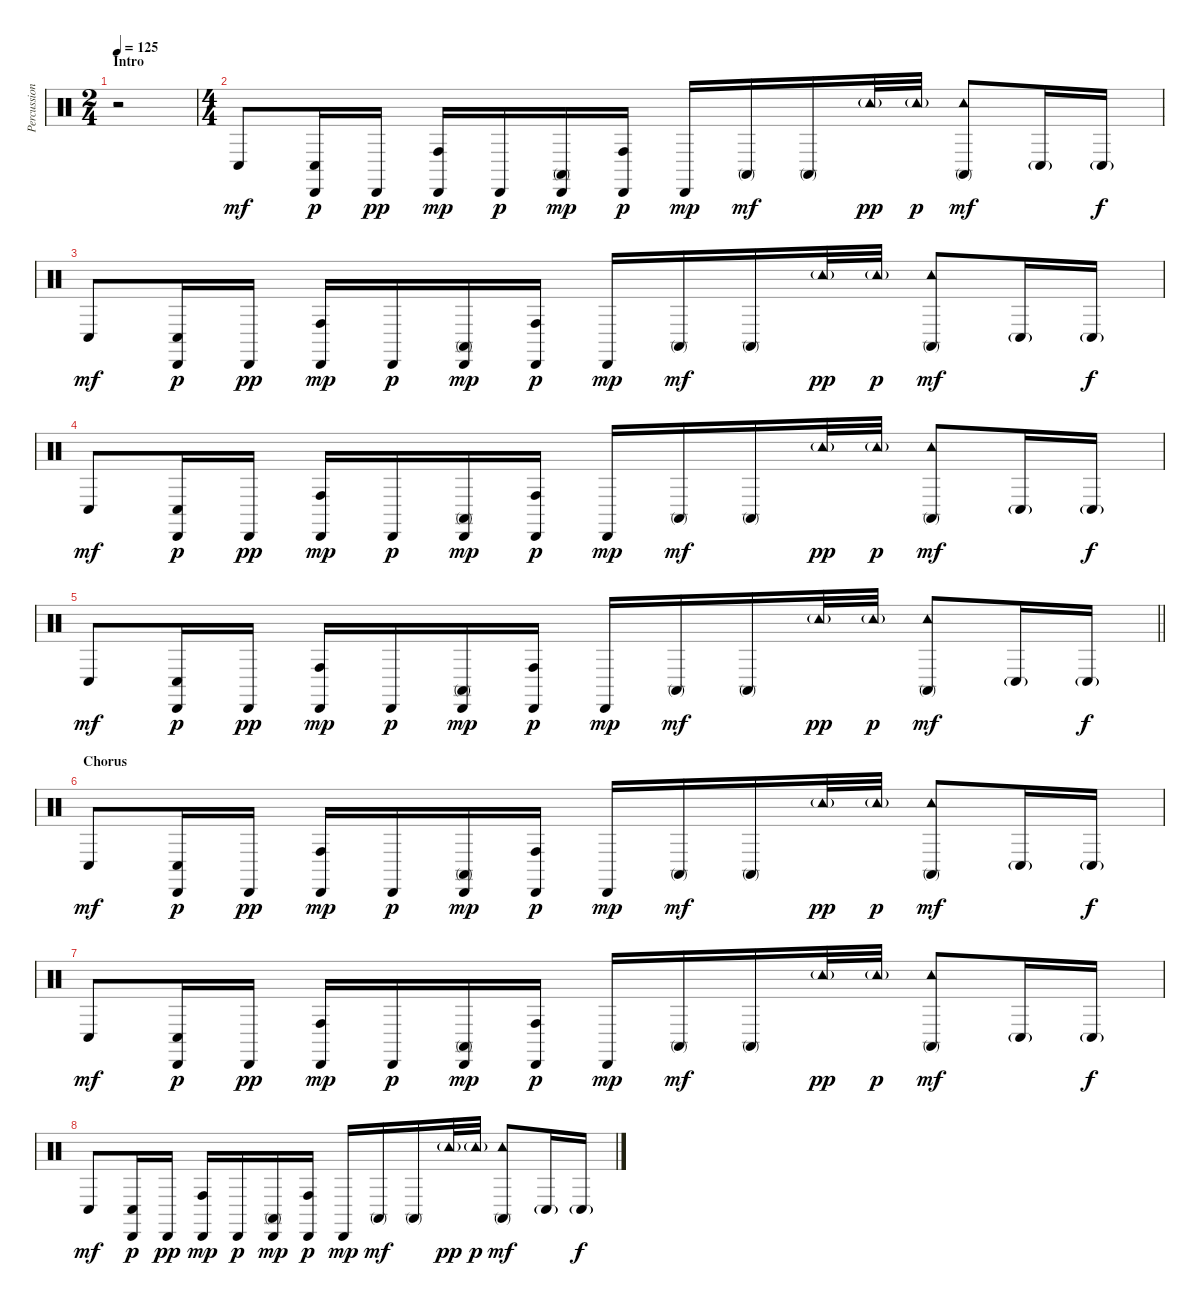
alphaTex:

\track ("Percussion" "Percussion") {instrument percussion}
\staff {score}
\articulation defaults
\ts (2 4)
\section ("" "Intro")
\tempo 125
\clef neutral
\ks c
r.2{dy mf} |
\ts (4 4)
"Conga low (hit)".8 ("Conga low (hit)" "Cabasa (hit)").16{dy p} "Cabasa (hit)".16{dy pp} ("Conga high (hit)" "Cabasa (hit)").16{dy mp} "Cabasa (hit)".16{dy p} ("Conga high (mute)" "Cabasa (hit)").16{dy mp} ("Conga high (hit)" "Cabasa (hit)").16{dy p} "Cabasa (hit)".16{dy mp} "Conga high (mute)".16{dy mf} "Conga high (mute)".16 "Tambourine (hit)"{g}.32{dy pp} "Tambourine (hit)"{g}.32{dy p} ("Conga high (mute)" "Tambourine (hit)").8{dy mf} "Conga low (hit)"{g}.16 "Conga low (hit)"{g}.16{dy f} |
"Conga low (hit)".8{dy mf} ("Conga low (hit)" "Cabasa (hit)").16{dy p} "Cabasa (hit)".16{dy pp} ("Conga high (hit)" "Cabasa (hit)").16{dy mp} "Cabasa (hit)".16{dy p} ("Conga high (mute)" "Cabasa (hit)").16{dy mp} ("Conga high (hit)" "Cabasa (hit)").16{dy p} "Cabasa (hit)".16{dy mp} "Conga high (mute)".16{dy mf} "Conga high (mute)".16 "Tambourine (hit)"{g}.32{dy pp} "Tambourine (hit)"{g}.32{dy p} ("Conga high (mute)" "Tambourine (hit)").8{dy mf} "Conga low (hit)"{g}.16 "Conga low (hit)"{g}.16{dy f} |
"Conga low (hit)".8{dy mf} ("Conga low (hit)" "Cabasa (hit)").16{dy p} "Cabasa (hit)".16{dy pp} ("Conga high (hit)" "Cabasa (hit)").16{dy mp} "Cabasa (hit)".16{dy p} ("Conga high (mute)" "Cabasa (hit)").16{dy mp} ("Conga high (hit)" "Cabasa (hit)").16{dy p} "Cabasa (hit)".16{dy mp} "Conga high (mute)".16{dy mf} "Conga high (mute)".16 "Tambourine (hit)"{g}.32{dy pp} "Tambourine (hit)"{g}.32{dy p} ("Conga high (mute)" "Tambourine (hit)").8{dy mf} "Conga low (hit)"{g}.16 "Conga low (hit)"{g}.16{dy f} |
\barLineRight lightlight "Conga low (hit)".8{dy mf}
("Conga low (hit)" "Cabasa (hit)").16{dy p} "Cabasa (hit)".16{dy pp} ("Conga high (hit)" "Cabasa (hit)").16{dy mp} "Cabasa (hit)".16{dy p} ("Conga high (mute)" "Cabasa (hit)").16{dy mp} ("Conga high (hit)" "Cabasa (hit)").16{dy p} "Cabasa (hit)".16{dy mp} "Conga high (mute)".16{dy mf} "Conga high (mute)".16 "Tambourine (hit)"{g}.32{dy pp} "Tambourine (hit)"{g}.32{dy p} ("Conga high (mute)" "Tambourine (hit)").8{dy mf} "Conga low (hit)"{g}.16 "Conga low (hit)"{g}.16{dy f} |
\section ("" "Chorus")
"Conga low (hit)".8{dy mf} ("Conga low (hit)" "Cabasa (hit)").16{dy p} "Cabasa (hit)".16{dy pp} ("Conga high (hit)" "Cabasa (hit)").16{dy mp} "Cabasa (hit)".16{dy p} ("Conga high (mute)" "Cabasa (hit)").16{dy mp} ("Conga high (hit)" "Cabasa (hit)").16{dy p} "Cabasa (hit)".16{dy mp} "Conga high (mute)".16{dy mf} "Conga high (mute)".16 "Tambourine (hit)"{g}.32{dy pp} "Tambourine (hit)"{g}.32{dy p} ("Conga high (mute)" "Tambourine (hit)").8{dy mf} "Conga low (hit)"{g}.16 "Conga low (hit)"{g}.16{dy f} |
"Conga low (hit)".8{dy mf} ("Conga low (hit)" "Cabasa (hit)").16{dy p} "Cabasa (hit)".16{dy pp} ("Conga high (hit)" "Cabasa (hit)").16{dy mp} "Cabasa (hit)".16{dy p} ("Conga high (mute)" "Cabasa (hit)").16{dy mp} ("Conga high (hit)" "Cabasa (hit)").16{dy p} "Cabasa (hit)".16{dy mp} "Conga high (mute)".16{dy mf} "Conga high (mute)".16 "Tambourine (hit)"{g}.32{dy pp} "Tambourine (hit)"{g}.32{dy p} ("Conga high (mute)" "Tambourine (hit)").8{dy mf} "Conga low (hit)"{g}.16 "Conga low (hit)"{g}.16{dy f} |
"Conga low (hit)".8{dy mf} ("Conga low (hit)" "Cabasa (hit)").16{dy p} "Cabasa (hit)".16{dy pp} ("Conga high (hit)" "Cabasa (hit)").16{dy mp} "Cabasa (hit)".16{dy p} ("Conga high (mute)" "Cabasa (hit)").16{dy mp} ("Conga high (hit)" "Cabasa (hit)").16{dy p} "Cabasa (hit)".16{dy mp} "Conga high (mute)".16{dy mf} "Conga high (mute)".16 "Tambourine (hit)"{g}.32{dy pp} "Tambourine (hit)"{g}.32{dy p} ("Conga high (mute)" "Tambourine (hit)").8{dy mf} "Conga low (hit)"{g}.16 "Conga low (hit)"{g}.16{dy f}
